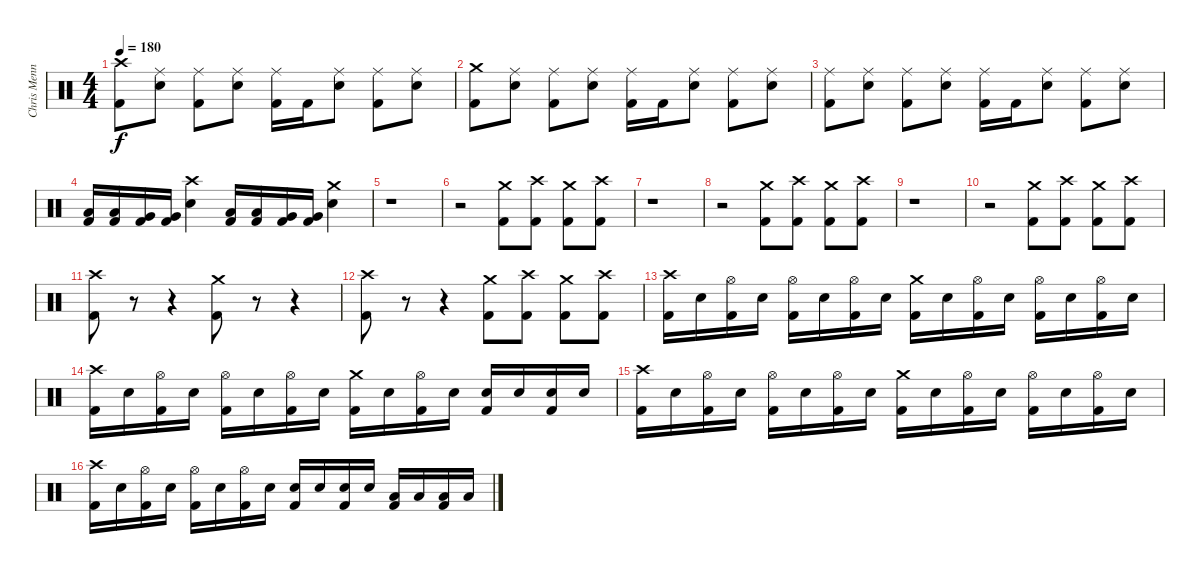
\track ("Chris Menning" "Chris Menn") {instrument percussion}
\staff {score}
\articulation defaults
\ts (4 4)
\tempo 180
\clef neutral
\ks c
("Crash high (hit)" "Kick (hit) 2").8{dy f} ("Ride (middle)" "Electric Snare (hit)").8 ("Ride (middle)" "Kick (hit) 2").8 ("Ride (middle)" "Electric Snare (hit)").8 ("Ride (middle)" "Kick (hit) 2").16 "Kick (hit) 2".16 ("Ride (middle)" "Electric Snare (hit)").8 ("Ride (middle)" "Kick (hit) 2").8 ("Ride (middle)" "Electric Snare (hit)").8 |
("Crash medium (hit)" "Kick (hit) 2").8 ("Ride (middle)" "Electric Snare (hit)").8 ("Ride (middle)" "Kick (hit) 2").8 ("Ride (middle)" "Electric Snare (hit)").8 ("Ride (middle)" "Kick (hit) 2").16 "Kick (hit) 2".16 ("Ride (middle)" "Electric Snare (hit)").8 ("Ride (middle)" "Kick (hit) 2").8 ("Ride (middle)" "Electric Snare (hit)").8 |
("Ride (middle)" "Kick (hit) 2").8 ("Ride (middle)" "Electric Snare (hit)").8 ("Ride (middle)" "Kick (hit) 2").8 ("Ride (middle)" "Electric Snare (hit)").8 ("Ride (middle)" "Kick (hit) 2").16 "Kick (hit) 2".16 ("Ride (middle)" "Electric Snare (hit)").8 ("Ride (middle)" "Kick (hit) 2").8 ("Ride (middle)" "Electric Snare (hit)").8 |
("Low Tom (hit)" "Kick (hit) 2").16 ("Low Tom (hit)" "Kick (hit) 2").16 ("Very Low Tom (hit)" "Kick (hit) 2").16 ("Very Low Tom (hit)" "Kick (hit) 2").16 ("Crash high (hit)" "Electric Snare (hit)").4 ("Low Tom (hit)" "Kick (hit) 2").16 ("Low Tom (hit)" "Kick (hit) 2").16 ("Very Low Tom (hit)" "Kick (hit) 2").16 ("Very Low Tom (hit)" "Kick (hit) 2").16 ("Crash medium (hit)" "Electric Snare (hit)").4 |
r.1 |
r.2 ("Crash medium (hit)" "Kick (hit) 2").8 ("Crash high (hit)" "Kick (hit) 2").8 ("Crash medium (hit)" "Kick (hit) 2").8 ("Crash high (hit)" "Kick (hit) 2").8 |
r.1 |
r.2 ("Crash medium (hit)" "Kick (hit) 2").8 ("Crash high (hit)" "Kick (hit) 2").8 ("Crash medium (hit)" "Kick (hit) 2").8 ("Crash high (hit)" "Kick (hit) 2").8 |
r.1 |
r.2 ("Crash medium (hit)" "Kick (hit) 2").8 ("Crash high (hit)" "Kick (hit) 2").8 ("Crash medium (hit)" "Kick (hit) 2").8 ("Crash high (hit)" "Kick (hit) 2").8 |
("Crash high (hit)" "Kick (hit) 2").8 r.8 r.4 ("Crash medium (hit)" "Kick (hit) 2").8 r.8 r.4 |
("Crash high (hit)" "Kick (hit) 2").8 r.8 r.4 ("Crash medium (hit)" "Kick (hit) 2").8 ("Crash high (hit)" "Kick (hit) 2").8 ("Crash medium (hit)" "Kick (hit) 2").8 ("Crash high (hit)" "Kick (hit) 2").8 |
("Crash high (hit)" "Kick (hit) 2").16 "Electric Snare (hit)".16 ("Hi-Hat (open)" "Kick (hit) 2").16 "Electric Snare (hit)".16 ("Hi-Hat (open)" "Kick (hit) 2").16 "Electric Snare (hit)".16 ("Hi-Hat (open)" "Kick (hit) 2").16 "Electric Snare (hit)".16 ("Crash medium (hit)" "Kick (hit) 2").16 "Electric Snare (hit)".16 ("Hi-Hat (open)" "Kick (hit) 2").16 "Electric Snare (hit)".16 ("Hi-Hat (open)" "Kick (hit) 2").16 "Electric Snare (hit)".16 ("Hi-Hat (open)" "Kick (hit) 2").16 "Electric Snare (hit)".16 |
("Crash high (hit)" "Kick (hit) 2").16 "Electric Snare (hit)".16 ("Hi-Hat (open)" "Kick (hit) 2").16 "Electric Snare (hit)".16 ("Hi-Hat (open)" "Kick (hit) 2").16 "Electric Snare (hit)".16 ("Hi-Hat (open)" "Kick (hit) 2").16 "Electric Snare (hit)".16 ("Crash medium (hit)" "Kick (hit) 2").16 "Electric Snare (hit)".16 ("Hi-Hat (open)" "Kick (hit) 2").16 "Electric Snare (hit)".16 ("Electric Snare (hit)" "Kick (hit) 2").16 "Electric Snare (hit)".16 ("Electric Snare (hit)" "Kick (hit) 2").16 "Electric Snare (hit)".16 |
("Crash high (hit)" "Kick (hit) 2").16 "Electric Snare (hit)".16 ("Hi-Hat (open)" "Kick (hit) 2").16 "Electric Snare (hit)".16 ("Hi-Hat (open)" "Kick (hit) 2").16 "Electric Snare (hit)".16 ("Hi-Hat (open)" "Kick (hit) 2").16 "Electric Snare (hit)".16 ("Crash medium (hit)" "Kick (hit) 2").16 "Electric Snare (hit)".16 ("Hi-Hat (open)" "Kick (hit) 2").16 "Electric Snare (hit)".16 ("Hi-Hat (open)" "Kick (hit) 2").16 "Electric Snare (hit)".16 ("Hi-Hat (open)" "Kick (hit) 2").16 "Electric Snare (hit)".16 |
("Crash high (hit)" "Kick (hit) 2").16 "Electric Snare (hit)".16 ("Hi-Hat (open)" "Kick (hit) 2").16 "Electric Snare (hit)".16 ("Hi-Hat (open)" "Kick (hit) 2").16 "Electric Snare (hit)".16 ("Hi-Hat (open)" "Kick (hit) 2").16 "Electric Snare (hit)".16 ("Electric Snare (hit)" "Kick (hit) 2").16 "Electric Snare (hit)".16 ("Electric Snare (hit)" "Kick (hit) 2").16 "Electric Snare (hit)".16 ("Low Tom (hit)" "Kick (hit) 2").16 "Low Tom (hit)".16 ("Low Tom (hit)" "Kick (hit) 2").16 "Low Tom (hit)".16
